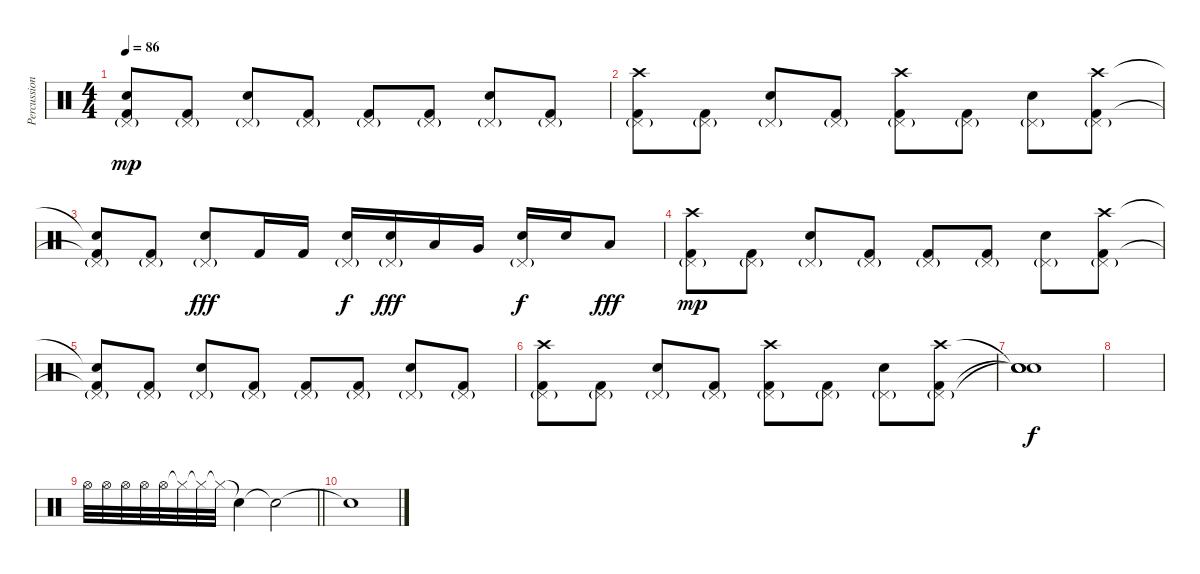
\track ("Percussion" "Percussion") {instrument percussion}
\staff {score}
\articulation defaults
\ts (4 4)
\tempo 86
\clef neutral
\ks c
("Pedal Hi-Hat (hit)"{g} "Kick (hit) 2"{t} "Snare (hit)"{t}).8{dy mp} ("Pedal Hi-Hat (hit)"{g} "Kick (hit) 2").8 ("Pedal Hi-Hat (hit)"{g} "Snare (hit) 2").8 ("Pedal Hi-Hat (hit)"{g} "Kick (hit) 2").8 ("Pedal Hi-Hat (hit)"{g} "Kick (hit) 2").8 ("Pedal Hi-Hat (hit)"{g} "Kick (hit) 2").8 ("Pedal Hi-Hat (hit)"{g} "Snare (hit) 2").8 ("Pedal Hi-Hat (hit)"{g} "Kick (hit) 2").8 |
("Pedal Hi-Hat (hit)"{g} "Kick (hit) 2" "Crash high (hit)").8 ("Pedal Hi-Hat (hit)"{g} "Kick (hit) 2").8 ("Pedal Hi-Hat (hit)"{g} "Snare (hit) 2").8 ("Pedal Hi-Hat (hit)"{g} "Kick (hit) 2").8 ("Pedal Hi-Hat (hit)"{g} "Kick (hit) 2" "Crash high (hit)").8 ("Pedal Hi-Hat (hit)"{g} "Kick (hit) 2").8 ("Pedal Hi-Hat (hit)"{g} "Snare (hit) 2").8 ("Pedal Hi-Hat (hit)"{g} "Kick (hit) 2" "Crash high (hit)").8 |
("Pedal Hi-Hat (hit)"{g} "Kick (hit) 2"{t} "Snare (hit)"{t}).8 ("Pedal Hi-Hat (hit)"{g} "Kick (hit) 2").8 ("Pedal Hi-Hat (hit)"{g} "Snare (hit) 2").8{dy fff} "Kick (hit) 2".16 "Kick (hit) 2".16 ("Pedal Hi-Hat (hit)"{g} "Snare (hit) 2").16{dy f} ("Pedal Hi-Hat (hit)"{g} "Snare (hit) 2").16{dy fff} "Low Tom (hit)".16 "Very Low Tom (hit)".16 ("Pedal Hi-Hat (hit)"{g} "Snare (hit) 2").16{dy f} "Snare (hit) 2".16 "Low Tom (hit)".8{dy fff} |
("Pedal Hi-Hat (hit)"{g} "Kick (hit) 2" "Crash high (hit)").8{dy mp} ("Pedal Hi-Hat (hit)"{g} "Kick (hit) 2").8 ("Pedal Hi-Hat (hit)"{g} "Snare (hit) 2").8 ("Pedal Hi-Hat (hit)"{g} "Kick (hit) 2").8 ("Pedal Hi-Hat (hit)"{g} "Kick (hit) 2").8 ("Pedal Hi-Hat (hit)"{g} "Kick (hit) 2").8 ("Pedal Hi-Hat (hit)"{g} "Snare (hit) 2").8 ("Pedal Hi-Hat (hit)"{g} "Kick (hit) 2" "Crash high (hit)").8 |
("Pedal Hi-Hat (hit)"{g} "Kick (hit) 2"{t} "Snare (hit)"{t}).8 ("Pedal Hi-Hat (hit)"{g} "Kick (hit) 2").8 ("Pedal Hi-Hat (hit)"{g} "Snare (hit) 2").8 ("Pedal Hi-Hat (hit)"{g} "Kick (hit) 2").8 ("Pedal Hi-Hat (hit)"{g} "Kick (hit) 2").8 ("Pedal Hi-Hat (hit)"{g} "Kick (hit) 2").8 ("Pedal Hi-Hat (hit)"{g} "Snare (hit) 2").8 ("Pedal Hi-Hat (hit)"{g} "Kick (hit) 2").8 |
("Pedal Hi-Hat (hit)"{g} "Kick (hit) 2" "Crash high (hit)").8 ("Pedal Hi-Hat (hit)"{g} "Kick (hit) 2").8 ("Pedal Hi-Hat (hit)"{g} "Snare (hit) 2").8 ("Pedal Hi-Hat (hit)"{g} "Kick (hit) 2").8 ("Pedal Hi-Hat (hit)"{g} "Kick (hit) 2" "Crash high (hit)").8 ("Pedal Hi-Hat (hit)"{g} "Kick (hit) 2").8 ("Pedal Hi-Hat (hit)"{g} "Snare (hit) 2").8 ("Pedal Hi-Hat (hit)"{g} "Kick (hit) 2" "Crash high (hit)").8 |
("Snare (hit)"{t} "Snare (hit)"{t} "Snare (hit)"{t}).1{dy f} |
|
\barLineRight lightlight "Hi-Hat (open)".32 "Hi-Hat (open)".32 "Hi-Hat (open)".32 "Hi-Hat (open)".32 "Hi-Hat (open)".32 "Hi-Hat (closed)"{t}.32 "Hi-Hat (closed)"{t}.32 "Hi-Hat (closed)"{t}.32 "Snare (hit)"{t}.4 "Snare (hit)"{t}.2
|
"Snare (hit)"{t}.1
